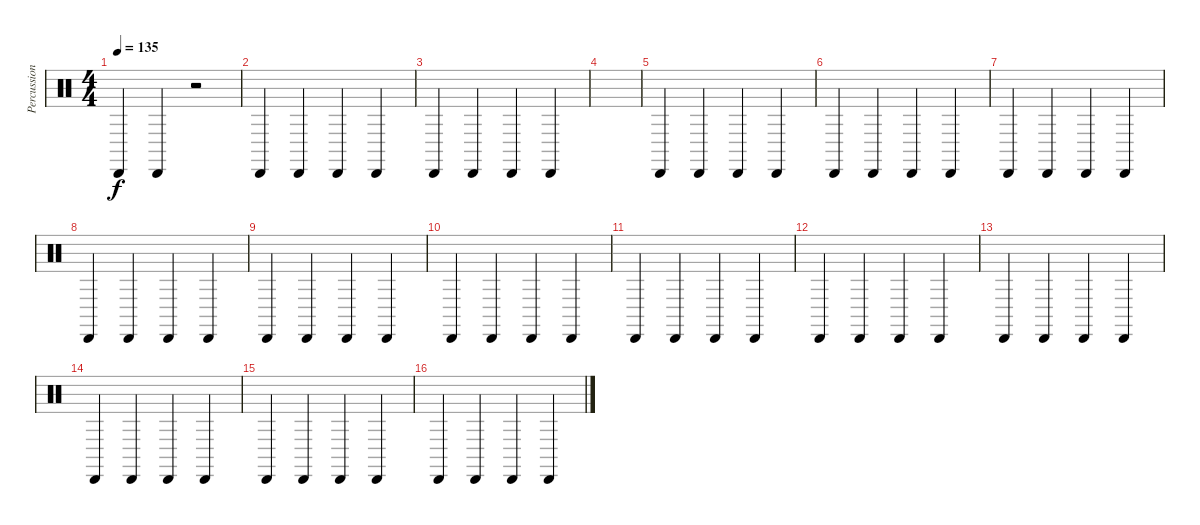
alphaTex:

\track ("Percussion2" "Percussion") {instrument percussion}
\staff {score}
\articulation defaults
\ts (4 4)
\tempo 135
\clef neutral
\ks c "Cabasa (hit)".4{dy f} "Cabasa (hit)".4
r.2 |
"Cabasa (hit)".4 "Cabasa (hit)".4 "Cabasa (hit)".4 "Cabasa (hit)".4 |
"Cabasa (hit)".4 "Cabasa (hit)".4 "Cabasa (hit)".4 "Cabasa (hit)".4 |
|
"Cabasa (hit)".4 "Cabasa (hit)".4 "Cabasa (hit)".4 "Cabasa (hit)".4 |
"Cabasa (hit)".4 "Cabasa (hit)".4 "Cabasa (hit)".4 "Cabasa (hit)".4 |
"Cabasa (hit)".4 "Cabasa (hit)".4 "Cabasa (hit)".4 "Cabasa (hit)".4 |
"Cabasa (hit)".4 "Cabasa (hit)".4 "Cabasa (hit)".4 "Cabasa (hit)".4 |
"Cabasa (hit)".4 "Cabasa (hit)".4 "Cabasa (hit)".4 "Cabasa (hit)".4 |
"Cabasa (hit)".4 "Cabasa (hit)".4 "Cabasa (hit)".4 "Cabasa (hit)".4 |
"Cabasa (hit)".4 "Cabasa (hit)".4 "Cabasa (hit)".4 "Cabasa (hit)".4 |
"Cabasa (hit)".4 "Cabasa (hit)".4 "Cabasa (hit)".4 "Cabasa (hit)".4 |
"Cabasa (hit)".4 "Cabasa (hit)".4 "Cabasa (hit)".4 "Cabasa (hit)".4 |
"Cabasa (hit)".4 "Cabasa (hit)".4 "Cabasa (hit)".4 "Cabasa (hit)".4 |
"Cabasa (hit)".4 "Cabasa (hit)".4 "Cabasa (hit)".4 "Cabasa (hit)".4 |
"Cabasa (hit)".4 "Cabasa (hit)".4 "Cabasa (hit)".4 "Cabasa (hit)".4
